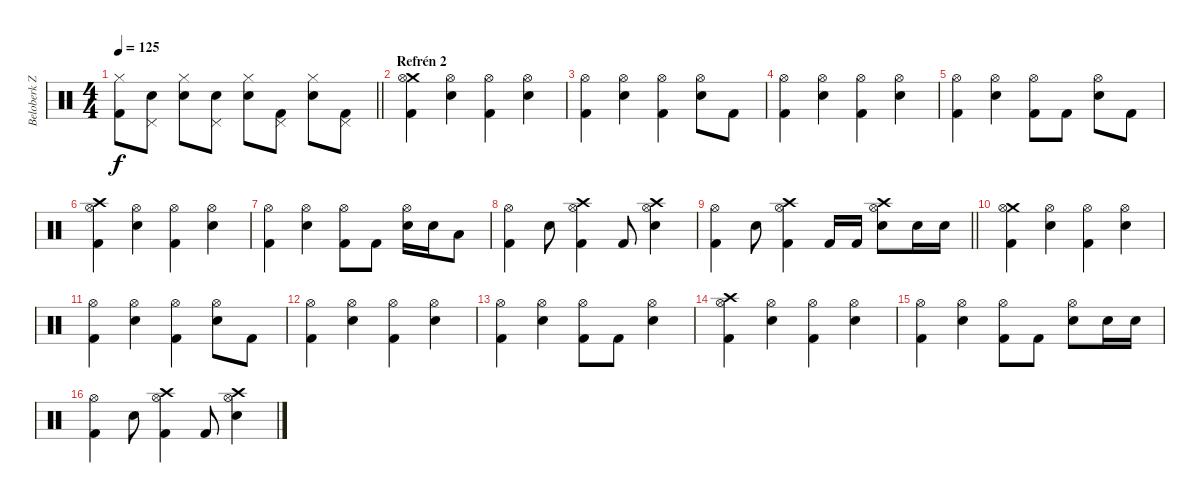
\track ("Beloberk Zsolt - Dobok" "Beloberk Z") {instrument percussion}
\staff {score}
\articulation defaults
\ts (4 4)
\tempo 125
\clef neutral
\barLineRight lightlight
\ks c
("Hi-Hat (closed)" "Kick (hit) 2").8{dy f} ("Pedal Hi-Hat (hit)" "Electric Snare (hit)").8 ("Hi-Hat (closed)" "Electric Snare (hit)").8 ("Pedal Hi-Hat (hit)" "Electric Snare (hit)").8 ("Hi-Hat (closed)" "Electric Snare (hit)").8 ("Pedal Hi-Hat (hit)" "Kick (hit) 2").8 ("Hi-Hat (closed)" "Electric Snare (hit)").8 ("Pedal Hi-Hat (hit)" "Kick (hit) 2").8 |
\section ("" "Refrén 2")
("Crash medium (hit)" "Hi-Hat (open)" "Kick (hit) 2").4 ("Hi-Hat (open)" "Electric Snare (hit)").4 ("Hi-Hat (open)" "Kick (hit) 2").4 ("Hi-Hat (open)" "Electric Snare (hit)").4 |
("Hi-Hat (open)" "Kick (hit) 2").4 ("Hi-Hat (open)" "Electric Snare (hit)").4 ("Hi-Hat (open)" "Kick (hit) 2").4 ("Hi-Hat (open)" "Electric Snare (hit)").8 "Kick (hit) 2".8 |
("Hi-Hat (open)" "Kick (hit) 2").4 ("Hi-Hat (open)" "Electric Snare (hit)").4 ("Hi-Hat (open)" "Kick (hit) 2").4 ("Hi-Hat (open)" "Electric Snare (hit)").4 |
("Hi-Hat (open)" "Kick (hit) 2").4 ("Hi-Hat (open)" "Electric Snare (hit)").4 ("Hi-Hat (open)" "Kick (hit) 2").8 "Kick (hit) 2".8 ("Hi-Hat (open)" "Electric Snare (hit)").8 "Kick (hit) 2".8 |
("Crash high (hit)" "Hi-Hat (open)" "Kick (hit) 2").4 ("Hi-Hat (open)" "Electric Snare (hit)").4 ("Hi-Hat (open)" "Kick (hit) 2").4 ("Hi-Hat (open)" "Electric Snare (hit)").4 |
("Hi-Hat (open)" "Kick (hit) 2").4 ("Hi-Hat (open)" "Electric Snare (hit)").4 ("Hi-Hat (open)" "Kick (hit) 2").8 "Kick (hit) 2".8 ("Hi-Hat (open)" "Electric Snare (hit)").16 "Electric Snare (hit)".16 "Low Tom (hit)".8 |
("Hi-Hat (open)" "Kick (hit) 2").4 "Electric Snare (hit)".8 ("Crash high (hit)" "Hi-Hat (open)" "Kick (hit) 2").4 "Kick (hit) 2".8 ("Crash high (hit)" "Hi-Hat (open)" "Electric Snare (hit)").4 |
\barLineRight lightlight
("Hi-Hat (open)" "Kick (hit) 2").4 "Electric Snare (hit)".8 ("Crash high (hit)" "Hi-Hat (open)" "Kick (hit) 2").4 "Kick (hit) 2".16 "Kick (hit) 2".16 ("Crash high (hit)" "Hi-Hat (open)" "Electric Snare (hit)").8 "Electric Snare (hit)".16 "Electric Snare (hit)".16 |
("Crash medium (hit)" "Hi-Hat (open)" "Kick (hit) 2").4 ("Hi-Hat (open)" "Electric Snare (hit)").4 ("Hi-Hat (open)" "Kick (hit) 2").4 ("Hi-Hat (open)" "Electric Snare (hit)").4 |
("Hi-Hat (open)" "Kick (hit) 2").4 ("Hi-Hat (open)" "Electric Snare (hit)").4 ("Hi-Hat (open)" "Kick (hit) 2").4 ("Hi-Hat (open)" "Electric Snare (hit)").8 "Kick (hit) 2".8 |
("Hi-Hat (open)" "Kick (hit) 2").4 ("Hi-Hat (open)" "Electric Snare (hit)").4 ("Hi-Hat (open)" "Kick (hit) 2").4 ("Hi-Hat (open)" "Electric Snare (hit)").4 |
("Hi-Hat (open)" "Kick (hit) 2").4 ("Hi-Hat (open)" "Electric Snare (hit)").4 ("Hi-Hat (open)" "Kick (hit) 2").8 "Kick (hit) 2".8 ("Hi-Hat (open)" "Electric Snare (hit)").4 |
("Crash high (hit)" "Hi-Hat (open)" "Kick (hit) 2").4 ("Hi-Hat (open)" "Electric Snare (hit)").4 ("Hi-Hat (open)" "Kick (hit) 2").4 ("Hi-Hat (open)" "Electric Snare (hit)").4 |
("Hi-Hat (open)" "Kick (hit) 2").4 ("Hi-Hat (open)" "Electric Snare (hit)").4 ("Hi-Hat (open)" "Kick (hit) 2").8 "Kick (hit) 2".8 ("Hi-Hat (open)" "Electric Snare (hit)").8 "Electric Snare (hit)".16 "Electric Snare (hit)".16 |
("Hi-Hat (open)" "Kick (hit) 2").4 "Electric Snare (hit)".8 ("Crash high (hit)" "Hi-Hat (open)" "Kick (hit) 2").4 "Kick (hit) 2".8 ("Crash high (hit)" "Hi-Hat (open)" "Electric Snare (hit)").4
